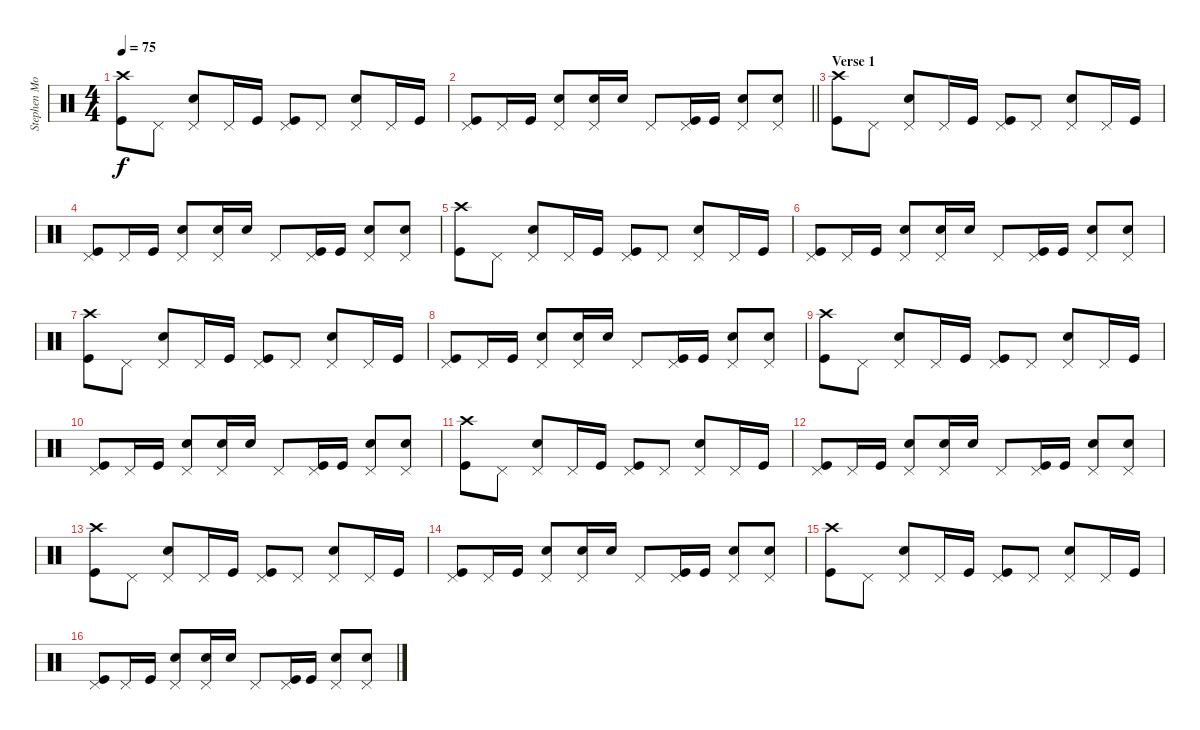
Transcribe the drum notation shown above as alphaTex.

\track ("Stephen Morris (Drums)" "Stephen Mo") {instrument percussion}
\staff {score}
\articulation defaults
\ts (4 4)
\tempo 75
\clef neutral
\ks c
("Crash high (hit)" "Kick (hit)").8{dy f} "Pedal Hi-Hat (hit)".8 ("Pedal Hi-Hat (hit)" "Electric Snare (hit)").8 "Pedal Hi-Hat (hit)".16 "Kick (hit)".16 ("Pedal Hi-Hat (hit)" "Kick (hit)").8 "Pedal Hi-Hat (hit)".8 ("Pedal Hi-Hat (hit)" "Electric Snare (hit)").8 "Pedal Hi-Hat (hit)".16 "Kick (hit)".16 |
\barLineRight lightlight
("Pedal Hi-Hat (hit)" "Kick (hit)").8 "Pedal Hi-Hat (hit)".16 "Kick (hit)".16 ("Pedal Hi-Hat (hit)" "Electric Snare (hit)").8 ("Pedal Hi-Hat (hit)" "Electric Snare (hit)").16 "Electric Snare (hit)".16 "Pedal Hi-Hat (hit)".8 ("Pedal Hi-Hat (hit)" "Kick (hit)").16 "Kick (hit)".16 ("Pedal Hi-Hat (hit)" "Electric Snare (hit)").8 ("Pedal Hi-Hat (hit)" "Electric Snare (hit)").8 |
\section ("" "Verse 1")
("Crash high (hit)" "Kick (hit)").8 "Pedal Hi-Hat (hit)".8 ("Pedal Hi-Hat (hit)" "Electric Snare (hit)").8 "Pedal Hi-Hat (hit)".16 "Kick (hit)".16 ("Pedal Hi-Hat (hit)" "Kick (hit)").8 "Pedal Hi-Hat (hit)".8 ("Pedal Hi-Hat (hit)" "Electric Snare (hit)").8 "Pedal Hi-Hat (hit)".16 "Kick (hit)".16 |
("Pedal Hi-Hat (hit)" "Kick (hit)").8 "Pedal Hi-Hat (hit)".16 "Kick (hit)".16 ("Pedal Hi-Hat (hit)" "Electric Snare (hit)").8 ("Pedal Hi-Hat (hit)" "Electric Snare (hit)").16 "Electric Snare (hit)".16 "Pedal Hi-Hat (hit)".8 ("Pedal Hi-Hat (hit)" "Kick (hit)").16 "Kick (hit)".16 ("Pedal Hi-Hat (hit)" "Electric Snare (hit)").8 ("Pedal Hi-Hat (hit)" "Electric Snare (hit)").8 |
("Crash high (hit)" "Kick (hit)").8 "Pedal Hi-Hat (hit)".8 ("Pedal Hi-Hat (hit)" "Electric Snare (hit)").8 "Pedal Hi-Hat (hit)".16 "Kick (hit)".16 ("Pedal Hi-Hat (hit)" "Kick (hit)").8 "Pedal Hi-Hat (hit)".8 ("Pedal Hi-Hat (hit)" "Electric Snare (hit)").8 "Pedal Hi-Hat (hit)".16 "Kick (hit)".16 |
("Pedal Hi-Hat (hit)" "Kick (hit)").8 "Pedal Hi-Hat (hit)".16 "Kick (hit)".16 ("Pedal Hi-Hat (hit)" "Electric Snare (hit)").8 ("Pedal Hi-Hat (hit)" "Electric Snare (hit)").16 "Electric Snare (hit)".16 "Pedal Hi-Hat (hit)".8 ("Pedal Hi-Hat (hit)" "Kick (hit)").16 "Kick (hit)".16 ("Pedal Hi-Hat (hit)" "Electric Snare (hit)").8 ("Pedal Hi-Hat (hit)" "Electric Snare (hit)").8 |
("Crash high (hit)" "Kick (hit)").8 "Pedal Hi-Hat (hit)".8 ("Pedal Hi-Hat (hit)" "Electric Snare (hit)").8 "Pedal Hi-Hat (hit)".16 "Kick (hit)".16 ("Pedal Hi-Hat (hit)" "Kick (hit)").8 "Pedal Hi-Hat (hit)".8 ("Pedal Hi-Hat (hit)" "Electric Snare (hit)").8 "Pedal Hi-Hat (hit)".16 "Kick (hit)".16 |
("Pedal Hi-Hat (hit)" "Kick (hit)").8 "Pedal Hi-Hat (hit)".16 "Kick (hit)".16 ("Pedal Hi-Hat (hit)" "Electric Snare (hit)").8 ("Pedal Hi-Hat (hit)" "Electric Snare (hit)").16 "Electric Snare (hit)".16 "Pedal Hi-Hat (hit)".8 ("Pedal Hi-Hat (hit)" "Kick (hit)").16 "Kick (hit)".16 ("Pedal Hi-Hat (hit)" "Electric Snare (hit)").8 ("Pedal Hi-Hat (hit)" "Electric Snare (hit)").8 |
("Crash high (hit)" "Kick (hit)").8 "Pedal Hi-Hat (hit)".8 ("Pedal Hi-Hat (hit)" "Electric Snare (hit)").8 "Pedal Hi-Hat (hit)".16 "Kick (hit)".16 ("Pedal Hi-Hat (hit)" "Kick (hit)").8 "Pedal Hi-Hat (hit)".8 ("Pedal Hi-Hat (hit)" "Electric Snare (hit)").8 "Pedal Hi-Hat (hit)".16 "Kick (hit)".16 |
("Pedal Hi-Hat (hit)" "Kick (hit)").8 "Pedal Hi-Hat (hit)".16 "Kick (hit)".16 ("Pedal Hi-Hat (hit)" "Electric Snare (hit)").8 ("Pedal Hi-Hat (hit)" "Electric Snare (hit)").16 "Electric Snare (hit)".16 "Pedal Hi-Hat (hit)".8 ("Pedal Hi-Hat (hit)" "Kick (hit)").16 "Kick (hit)".16 ("Pedal Hi-Hat (hit)" "Electric Snare (hit)").8 ("Pedal Hi-Hat (hit)" "Electric Snare (hit)").8 |
("Crash high (hit)" "Kick (hit)").8 "Pedal Hi-Hat (hit)".8 ("Pedal Hi-Hat (hit)" "Electric Snare (hit)").8 "Pedal Hi-Hat (hit)".16 "Kick (hit)".16 ("Pedal Hi-Hat (hit)" "Kick (hit)").8 "Pedal Hi-Hat (hit)".8 ("Pedal Hi-Hat (hit)" "Electric Snare (hit)").8 "Pedal Hi-Hat (hit)".16 "Kick (hit)".16 |
("Pedal Hi-Hat (hit)" "Kick (hit)").8 "Pedal Hi-Hat (hit)".16 "Kick (hit)".16 ("Pedal Hi-Hat (hit)" "Electric Snare (hit)").8 ("Pedal Hi-Hat (hit)" "Electric Snare (hit)").16 "Electric Snare (hit)".16 "Pedal Hi-Hat (hit)".8 ("Pedal Hi-Hat (hit)" "Kick (hit)").16 "Kick (hit)".16 ("Pedal Hi-Hat (hit)" "Electric Snare (hit)").8 ("Pedal Hi-Hat (hit)" "Electric Snare (hit)").8 |
("Crash high (hit)" "Kick (hit)").8 "Pedal Hi-Hat (hit)".8 ("Pedal Hi-Hat (hit)" "Electric Snare (hit)").8 "Pedal Hi-Hat (hit)".16 "Kick (hit)".16 ("Pedal Hi-Hat (hit)" "Kick (hit)").8 "Pedal Hi-Hat (hit)".8 ("Pedal Hi-Hat (hit)" "Electric Snare (hit)").8 "Pedal Hi-Hat (hit)".16 "Kick (hit)".16 |
("Pedal Hi-Hat (hit)" "Kick (hit)").8 "Pedal Hi-Hat (hit)".16 "Kick (hit)".16 ("Pedal Hi-Hat (hit)" "Electric Snare (hit)").8 ("Pedal Hi-Hat (hit)" "Electric Snare (hit)").16 "Electric Snare (hit)".16 "Pedal Hi-Hat (hit)".8 ("Pedal Hi-Hat (hit)" "Kick (hit)").16 "Kick (hit)".16 ("Pedal Hi-Hat (hit)" "Electric Snare (hit)").8 ("Pedal Hi-Hat (hit)" "Electric Snare (hit)").8 |
("Crash high (hit)" "Kick (hit)").8 "Pedal Hi-Hat (hit)".8 ("Pedal Hi-Hat (hit)" "Electric Snare (hit)").8 "Pedal Hi-Hat (hit)".16 "Kick (hit)".16 ("Pedal Hi-Hat (hit)" "Kick (hit)").8 "Pedal Hi-Hat (hit)".8 ("Pedal Hi-Hat (hit)" "Electric Snare (hit)").8 "Pedal Hi-Hat (hit)".16 "Kick (hit)".16 |
("Pedal Hi-Hat (hit)" "Kick (hit)").8 "Pedal Hi-Hat (hit)".16 "Kick (hit)".16 ("Pedal Hi-Hat (hit)" "Electric Snare (hit)").8 ("Pedal Hi-Hat (hit)" "Electric Snare (hit)").16 "Electric Snare (hit)".16 "Pedal Hi-Hat (hit)".8 ("Pedal Hi-Hat (hit)" "Kick (hit)").16 "Kick (hit)".16 ("Pedal Hi-Hat (hit)" "Electric Snare (hit)").8 ("Pedal Hi-Hat (hit)" "Electric Snare (hit)").8
